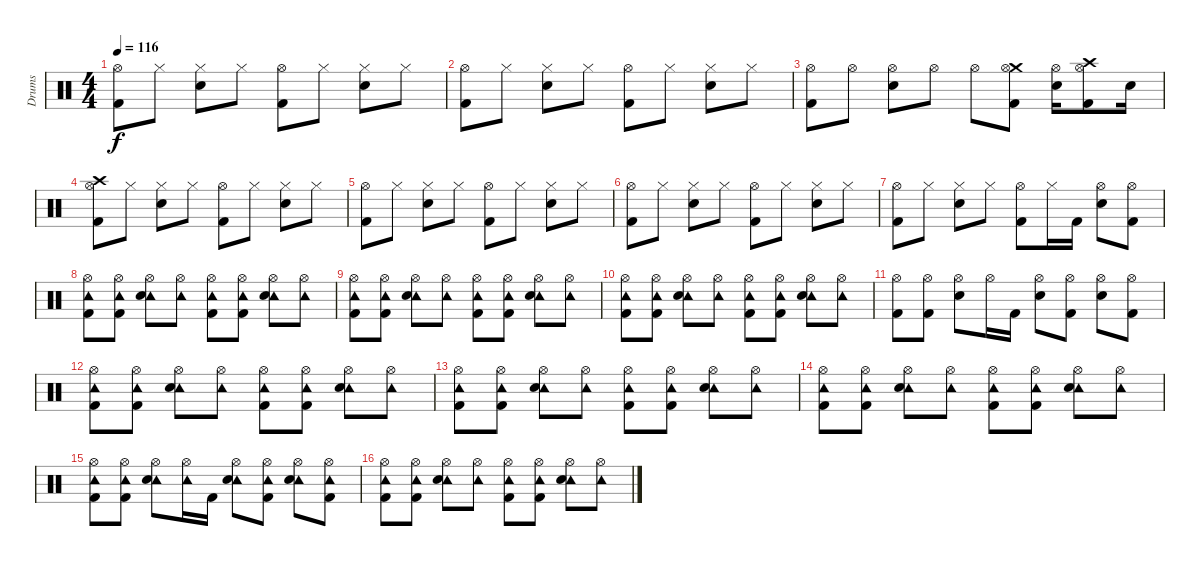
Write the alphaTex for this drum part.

\track ("Drums" "Drums") {instrument percussion}
\staff {score}
\articulation defaults
\ts (4 4)
\tempo 116
\clef neutral
\ks c
("Hi-Hat (open)" "Kick (hit) 2").8{dy f} "Hi-Hat (closed)".8 ("Hi-Hat (closed)" "Snare (hit) 2").8 "Hi-Hat (closed)".8 ("Hi-Hat (open)" "Kick (hit) 2").8 "Hi-Hat (closed)".8 ("Hi-Hat (closed)" "Snare (hit) 2").8 "Hi-Hat (closed)".8 |
("Hi-Hat (open)" "Kick (hit) 2").8 "Hi-Hat (closed)".8 ("Hi-Hat (closed)" "Snare (hit) 2").8 "Hi-Hat (closed)".8 ("Hi-Hat (open)" "Kick (hit) 2").8 "Hi-Hat (closed)".8 ("Hi-Hat (closed)" "Snare (hit) 2").8 "Hi-Hat (closed)".8 |
("Hi-Hat (open)" "Kick (hit) 2").8 "Hi-Hat (open)".8 ("Hi-Hat (open)" "Snare (hit) 2").8 "Hi-Hat (open)".8 "Hi-Hat (open)".8 ("Crash medium (hit)" "Hi-Hat (open)" "Kick (hit) 2").8 ("Hi-Hat (open)" "Snare (hit) 2").16 ("Crash high (hit)" "Hi-Hat (open)" "Kick (hit) 2").8 "Snare (hit)"{x}.16 |
("Crash high (hit)" "Hi-Hat (open)" "Kick (hit) 2").8 "Hi-Hat (closed)".8 ("Hi-Hat (closed)" "Snare (hit) 2").8 "Hi-Hat (closed)".8 ("Hi-Hat (open)" "Kick (hit) 2").8 "Hi-Hat (closed)".8 ("Hi-Hat (closed)" "Snare (hit) 2").8 "Hi-Hat (closed)".8 |
("Hi-Hat (open)" "Kick (hit) 2").8 "Hi-Hat (closed)".8 ("Hi-Hat (closed)" "Snare (hit) 2").8 "Hi-Hat (closed)".8 ("Hi-Hat (open)" "Kick (hit) 2").8 "Hi-Hat (closed)".8 ("Hi-Hat (closed)" "Snare (hit) 2").8 "Hi-Hat (closed)".8 |
("Hi-Hat (open)" "Kick (hit) 2").8 "Hi-Hat (closed)".8 ("Hi-Hat (closed)" "Snare (hit) 2").8 "Hi-Hat (closed)".8 ("Hi-Hat (open)" "Kick (hit) 2").8 "Hi-Hat (closed)".8 ("Hi-Hat (closed)" "Snare (hit) 2").8 "Hi-Hat (closed)".8 |
("Hi-Hat (open)" "Kick (hit) 2").8 "Hi-Hat (closed)".8 ("Hi-Hat (closed)" "Snare (hit) 2").8 "Hi-Hat (closed)".8 ("Hi-Hat (open)" "Kick (hit) 2").8 "Hi-Hat (closed)".16 "Kick (hit) 2".16 ("Hi-Hat (open)" "Snare (hit) 2").8 ("Hi-Hat (open)" "Kick (hit) 2").8 |
("Hi-Hat (open)" "Tambourine (hit)" "Kick (hit) 2").8 ("Hi-Hat (open)" "Tambourine (hit)" "Kick (hit) 2").8 ("Hi-Hat (open)" "Tambourine (hit)" "Snare (hit) 2").8 ("Hi-Hat (open)" "Tambourine (hit)").8 ("Hi-Hat (open)" "Tambourine (hit)" "Kick (hit) 2").8 ("Hi-Hat (open)" "Tambourine (hit)" "Kick (hit) 2").8 ("Hi-Hat (open)" "Tambourine (hit)" "Snare (hit) 2").8 ("Hi-Hat (open)" "Tambourine (hit)").8 |
("Hi-Hat (open)" "Tambourine (hit)" "Kick (hit) 2").8 ("Hi-Hat (open)" "Tambourine (hit)" "Kick (hit) 2").8 ("Hi-Hat (open)" "Tambourine (hit)" "Snare (hit) 2").8 ("Hi-Hat (open)" "Tambourine (hit)").8 ("Hi-Hat (open)" "Tambourine (hit)" "Kick (hit) 2").8 ("Hi-Hat (open)" "Tambourine (hit)" "Kick (hit) 2").8 ("Hi-Hat (open)" "Tambourine (hit)" "Snare (hit) 2").8 ("Hi-Hat (open)" "Tambourine (hit)").8 |
("Hi-Hat (open)" "Tambourine (hit)" "Kick (hit) 2").8 ("Hi-Hat (open)" "Tambourine (hit)" "Kick (hit) 2").8 ("Hi-Hat (open)" "Tambourine (hit)" "Snare (hit) 2").8 ("Hi-Hat (open)" "Tambourine (hit)").8 ("Hi-Hat (open)" "Tambourine (hit)" "Kick (hit) 2").8 ("Hi-Hat (open)" "Tambourine (hit)" "Kick (hit) 2").8 ("Hi-Hat (open)" "Tambourine (hit)" "Snare (hit) 2").8 ("Hi-Hat (open)" "Tambourine (hit)").8 |
("Hi-Hat (open)" "Kick (hit) 2").8 ("Hi-Hat (open)" "Kick (hit) 2").8 ("Hi-Hat (open)" "Snare (hit) 2").8 "Hi-Hat (open)".16 "Kick (hit) 2".16 ("Hi-Hat (open)" "Snare (hit) 2").8 ("Hi-Hat (open)" "Kick (hit) 2").8 ("Hi-Hat (open)" "Snare (hit) 2").8 ("Hi-Hat (open)" "Kick (hit) 2").8 |
("Hi-Hat (open)" "Tambourine (hit)" "Kick (hit) 2").8 ("Hi-Hat (open)" "Tambourine (hit)" "Kick (hit) 2").8 ("Hi-Hat (open)" "Tambourine (hit)" "Snare (hit) 2").8 ("Hi-Hat (open)" "Tambourine (hit)").8 ("Hi-Hat (open)" "Tambourine (hit)" "Kick (hit) 2").8 ("Hi-Hat (open)" "Tambourine (hit)" "Kick (hit) 2").8 ("Hi-Hat (open)" "Tambourine (hit)" "Snare (hit) 2").8 ("Hi-Hat (open)" "Tambourine (hit)").8 |
("Hi-Hat (open)" "Tambourine (hit)" "Kick (hit) 2").8 ("Hi-Hat (open)" "Tambourine (hit)" "Kick (hit) 2").8 ("Hi-Hat (open)" "Tambourine (hit)" "Snare (hit) 2").8 ("Hi-Hat (open)" "Tambourine (hit)").8 ("Hi-Hat (open)" "Tambourine (hit)" "Kick (hit) 2").8 ("Hi-Hat (open)" "Tambourine (hit)" "Kick (hit) 2").8 ("Hi-Hat (open)" "Tambourine (hit)" "Snare (hit) 2").8 ("Hi-Hat (open)" "Tambourine (hit)").8 |
("Hi-Hat (open)" "Tambourine (hit)" "Kick (hit) 2").8 ("Hi-Hat (open)" "Tambourine (hit)" "Kick (hit) 2").8 ("Hi-Hat (open)" "Tambourine (hit)" "Snare (hit) 2").8 ("Hi-Hat (open)" "Tambourine (hit)").8 ("Hi-Hat (open)" "Tambourine (hit)" "Kick (hit) 2").8 ("Hi-Hat (open)" "Tambourine (hit)" "Kick (hit) 2").8 ("Hi-Hat (open)" "Tambourine (hit)" "Snare (hit) 2").8 ("Hi-Hat (open)" "Tambourine (hit)").8 |
("Hi-Hat (open)" "Tambourine (hit)" "Kick (hit) 2").8 ("Hi-Hat (open)" "Tambourine (hit)" "Kick (hit) 2").8 ("Hi-Hat (open)" "Tambourine (hit)" "Snare (hit) 2").8 ("Hi-Hat (open)" "Tambourine (hit)").16 "Kick (hit) 2".16 ("Hi-Hat (open)" "Tambourine (hit)" "Snare (hit) 2").8 ("Hi-Hat (open)" "Tambourine (hit)" "Kick (hit) 2").8 ("Hi-Hat (open)" "Tambourine (hit)" "Snare (hit) 2").8 ("Hi-Hat (open)" "Tambourine (hit)" "Kick (hit) 2").8 |
("Hi-Hat (open)" "Tambourine (hit)" "Kick (hit) 2").8 ("Hi-Hat (open)" "Tambourine (hit)" "Kick (hit) 2").8 ("Hi-Hat (open)" "Tambourine (hit)" "Snare (hit) 2").8 ("Hi-Hat (open)" "Tambourine (hit)").8 ("Hi-Hat (open)" "Tambourine (hit)" "Kick (hit) 2").8 ("Hi-Hat (open)" "Tambourine (hit)" "Kick (hit) 2").8 ("Hi-Hat (open)" "Tambourine (hit)" "Snare (hit) 2").8 ("Hi-Hat (open)" "Tambourine (hit)").8
